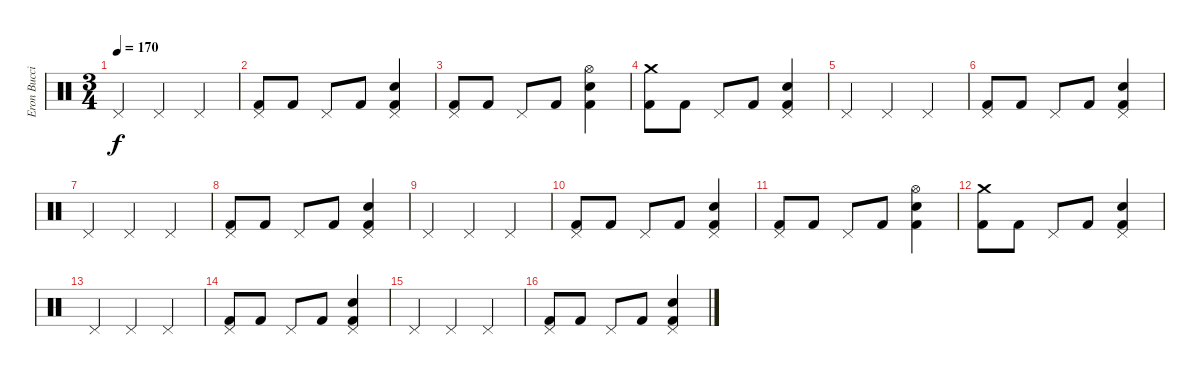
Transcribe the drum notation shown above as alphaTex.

\track ("Eron Bucciarelli (Drums)" "Eron Bucci") {instrument percussion}
\staff {score}
\articulation defaults
\ts (3 4)
\tempo 170
\clef neutral
\ks c "Pedal Hi-Hat (hit)".4{dy f} "Pedal Hi-Hat (hit)".4 "Pedal Hi-Hat (hit)".4
|
("Pedal Hi-Hat (hit)" "Kick (hit) 2").8 "Kick (hit) 2".8 "Pedal Hi-Hat (hit)".8 "Kick (hit) 2".8 ("Pedal Hi-Hat (hit)" "Snare (hit) 2" "Kick (hit) 2").4 |
("Pedal Hi-Hat (hit)" "Kick (hit) 2").8 "Kick (hit) 2".8 "Pedal Hi-Hat (hit)".8 "Kick (hit) 2".8 ("Hi-Hat (open)" "Snare (hit) 2" "Kick (hit) 2").4 |
("Crash medium (hit)" "Kick (hit) 2").8 "Kick (hit) 2".8 "Pedal Hi-Hat (hit)".8 "Kick (hit) 2".8 ("Pedal Hi-Hat (hit)" "Snare (hit) 2" "Kick (hit) 2").4 |
"Pedal Hi-Hat (hit)".4 "Pedal Hi-Hat (hit)".4 "Pedal Hi-Hat (hit)".4 |
("Pedal Hi-Hat (hit)" "Kick (hit) 2").8 "Kick (hit) 2".8 "Pedal Hi-Hat (hit)".8 "Kick (hit) 2".8 ("Pedal Hi-Hat (hit)" "Snare (hit) 2" "Kick (hit) 2").4 |
"Pedal Hi-Hat (hit)".4 "Pedal Hi-Hat (hit)".4 "Pedal Hi-Hat (hit)".4 |
("Pedal Hi-Hat (hit)" "Kick (hit) 2").8 "Kick (hit) 2".8 "Pedal Hi-Hat (hit)".8 "Kick (hit) 2".8 ("Pedal Hi-Hat (hit)" "Snare (hit) 2" "Kick (hit) 2").4 |
"Pedal Hi-Hat (hit)".4 "Pedal Hi-Hat (hit)".4 "Pedal Hi-Hat (hit)".4 |
("Pedal Hi-Hat (hit)" "Kick (hit) 2").8 "Kick (hit) 2".8 "Pedal Hi-Hat (hit)".8 "Kick (hit) 2".8 ("Pedal Hi-Hat (hit)" "Snare (hit) 2" "Kick (hit) 2").4 |
("Pedal Hi-Hat (hit)" "Kick (hit) 2").8 "Kick (hit) 2".8 "Pedal Hi-Hat (hit)".8 "Kick (hit) 2".8 ("Hi-Hat (open)" "Snare (hit) 2" "Kick (hit) 2").4 |
("Crash medium (hit)" "Kick (hit) 2").8 "Kick (hit) 2".8 "Pedal Hi-Hat (hit)".8 "Kick (hit) 2".8 ("Pedal Hi-Hat (hit)" "Snare (hit) 2" "Kick (hit) 2").4 |
"Pedal Hi-Hat (hit)".4 "Pedal Hi-Hat (hit)".4 "Pedal Hi-Hat (hit)".4 |
("Pedal Hi-Hat (hit)" "Kick (hit) 2").8 "Kick (hit) 2".8 "Pedal Hi-Hat (hit)".8 "Kick (hit) 2".8 ("Pedal Hi-Hat (hit)" "Snare (hit) 2" "Kick (hit) 2").4 |
"Pedal Hi-Hat (hit)".4 "Pedal Hi-Hat (hit)".4 "Pedal Hi-Hat (hit)".4 |
("Pedal Hi-Hat (hit)" "Kick (hit) 2").8 "Kick (hit) 2".8 "Pedal Hi-Hat (hit)".8 "Kick (hit) 2".8 ("Pedal Hi-Hat (hit)" "Snare (hit) 2" "Kick (hit) 2").4
